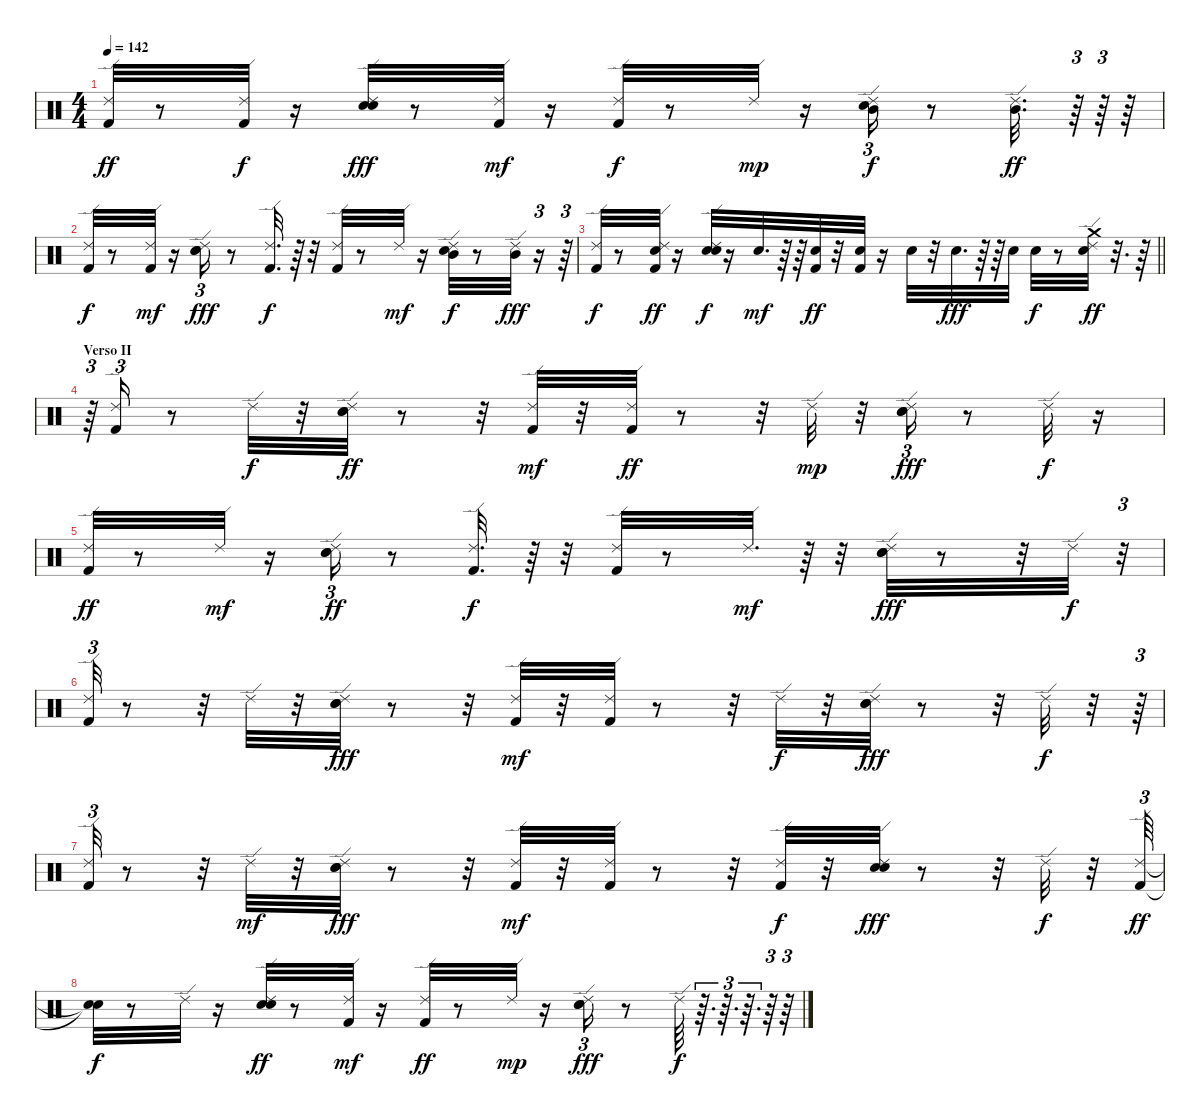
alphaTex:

\track "" {instrument percussion}
\staff {score}
\articulation defaults
\ts (4 4)
\tempo 142
\clef neutral
\ks c
("Ride (edge) 2" "Kick (hit) 2").32{dy ff} r.8 ("Kick (hit) 2" "Ride (edge) 2").32{dy f} r.16 ("Electric Snare (hit)" "Hand Clap (hit)" "Ride (edge) 2").32{dy fff} r.8 ("Kick (hit) 2" "Ride (edge) 2").32{dy mf} r.16 ("Kick (hit) 2" "Ride (edge) 2").32{dy f} r.8 "Ride (edge) 2".32{dy mp} r.16 ("Mid Tom (hit)" "Hand Clap (hit)" "Ride (edge) 2").16{tu (3 2) dy f} r.8 ("Ride (edge) 2" "Mid Tom (hit)").32{d dy ff} r.64{tu (3 2)} r.64{tu (3 2)} r.64 |
("Kick (hit) 2" "Ride (edge) 2").32{dy f} r.8 ("Kick (hit) 2" "Ride (edge) 2").32{dy mf} r.16 ("Electric Snare (hit)" "Hand Clap (hit)" "Ride (edge) 2").16{tu (3 2) dy fff} r.8 ("Kick (hit) 2" "Ride (edge) 2").32{d dy f} r.64 r.32 ("Kick (hit) 2" "Ride (edge) 2").32 r.8 "Ride (edge) 2".32{dy mf} r.16 ("Mid Tom (hit)" "Hand Clap (hit)" "Ride (edge) 2").32{dy f} r.8 ("Ride (edge) 2" "Mid Tom (hit)").32{dy fff} r.16{tu (3 2)} r.64{tu (3 2)} |
\barLineRight lightlight
("Kick (hit) 2" "Ride (edge) 2").32{dy f} r.8 ("Electric Snare (hit)" "Kick (hit) 2" "Ride (edge) 2").32{dy ff} r.16 ("Hand Clap (hit)" "Electric Snare (hit)" "Ride (edge) 2").32{dy f} r.16 "Electric Snare (hit)".32{d dy mf} r.64 r.64 ("Electric Snare (hit)" "Kick (hit) 2").32{dy ff} r.32 ("Electric Snare (hit)" "Kick (hit) 2").32 r.16 "Electric Snare (hit)".32 r.32 "Electric Snare (hit)".32{d dy fff} r.64 r.64 "Electric Snare (hit)".32 "Hand Clap (hit)".32{dy f} r.8 ("Electric Snare (hit)" "Ride (edge) 2" "Crash medium (hit)").32{dy ff} r.32{d} r.64 |
\section ("" "Verso II")
r.64{tu (3 2)} ("Ride (edge) 2" "Kick (hit) 2").16{tu (3 2)} r.8 "Ride (edge) 2".32{dy f} r.32 ("Hand Clap (hit)" "Electric Snare (hit)" "Ride (edge) 2").32{dy ff} r.8 r.32 ("Kick (hit) 2" "Ride (edge) 2").32{dy mf} r.32 ("Kick (hit) 2" "Ride (edge) 2").32{dy ff} r.8 r.32 "Ride (edge) 2".32{dy mp} r.32 ("Hand Clap (hit)" "Electric Snare (hit)" "Ride (edge) 2").16{tu (3 2) dy fff} r.8 "Ride (edge) 2".32{dy f} r.16 |
("Kick (hit) 2" "Ride (edge) 2").32{dy ff} r.8 "Ride (edge) 2".32{dy mf} r.16 ("Hand Clap (hit)" "Electric Snare (hit)" "Ride (edge) 2").16{tu (3 2) dy ff} r.8 ("Kick (hit) 2" "Ride (edge) 2").32{d dy f} r.64 r.32 ("Kick (hit) 2" "Ride (edge) 2").32 r.8 "Ride (edge) 2".32{d dy mf} r.64 r.32 ("Hand Clap (hit)" "Electric Snare (hit)" "Ride (edge) 2").32{dy fff} r.8 r.32 "Ride (edge) 2".32{dy f} r.32{tu (3 2)} |
("Ride (edge) 2" "Kick (hit) 2").32{tu (3 2)} r.8 r.32 "Ride (edge) 2".32 r.32 ("Electric Snare (hit)" "Hand Clap (hit)" "Ride (edge) 2").32{dy fff} r.8 r.32 ("Kick (hit) 2" "Ride (edge) 2").32{dy mf} r.32 ("Kick (hit) 2" "Ride (edge) 2").32 r.8 r.32 "Ride (edge) 2".32{dy f} r.32 ("Electric Snare (hit)" "Hand Clap (hit)" "Ride (edge) 2").32{dy fff} r.8 r.32 "Ride (edge) 2".32{dy f} r.32 r.64{tu (3 2)} |
("Kick (hit) 2" "Ride (edge) 2").32{tu (3 2)} r.8 r.32 "Ride (edge) 2".32{dy mf} r.32 ("Hand Clap (hit)" "Electric Snare (hit)" "Ride (edge) 2").32{dy fff} r.8 r.32 ("Kick (hit) 2" "Ride (edge) 2").32{dy mf} r.32 ("Kick (hit) 2" "Ride (edge) 2").32 r.8 r.32 ("Ride (edge) 2" "Kick (hit) 2").32{dy f} r.32 ("Electric Snare (hit)" "Hand Clap (hit)" "Ride (edge) 2").32{dy fff} r.8 r.32 "Ride (edge) 2".32{dy f} r.32 ("Ride (edge) 2" "Kick (hit) 2").64{tu (3 2) dy ff} |
("Snare (hit)"{t} "Snare (hit)"{t}).32{dy f} r.8 "Ride (edge) 2".32 r.16 ("Hand Clap (hit)" "Electric Snare (hit)" "Ride (edge) 2").32{dy ff} r.8 ("Kick (hit) 2" "Ride (edge) 2").32{dy mf} r.16 ("Kick (hit) 2" "Ride (edge) 2").32{dy ff} r.8 "Ride (edge) 2".32{dy mp} r.16 ("Hand Clap (hit)" "Electric Snare (hit)" "Ride (edge) 2").16{tu (3 2) dy fff} r.8 "Ride (edge) 2".64{dy f} r.64{d tu (3 2)} r.64{d tu (3 2)} r.64{d tu (3 2)} r.64{tu (3 2)} r.64{tu (3 2)}
